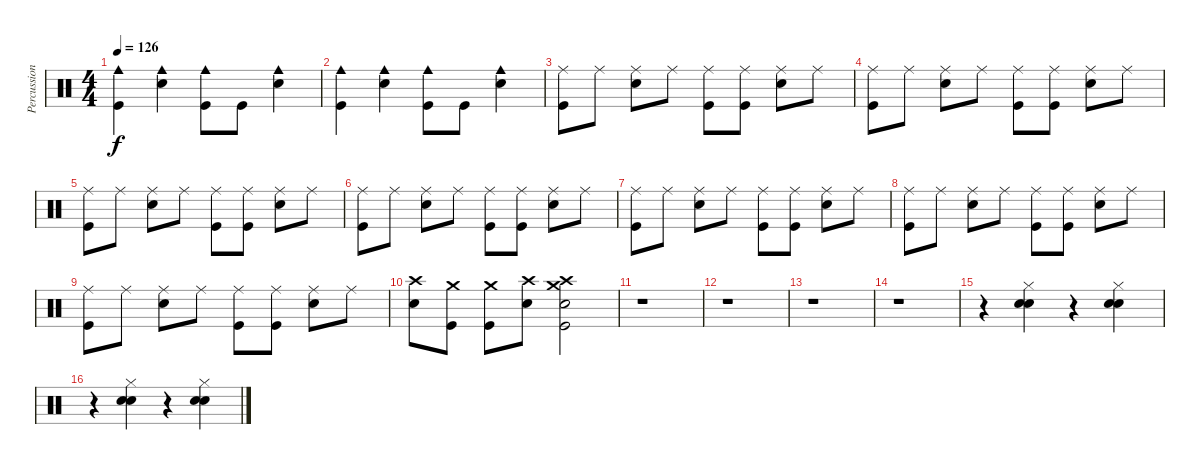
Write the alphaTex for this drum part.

\track ("Percussion" "Percussion") {instrument percussion}
\staff {score}
\articulation defaults
\ts (4 4)
\tempo 126
\clef neutral
\ks c
("Cowbell medium (hit)" "Kick (hit)").4{dy f} ("Cowbell medium (hit)" "Electric Snare (hit)").4 ("Cowbell medium (hit)" "Kick (hit)").8 "Kick (hit)".8 ("Cowbell medium (hit)" "Electric Snare (hit)").4 |
("Cowbell medium (hit)" "Kick (hit)").4 ("Cowbell medium (hit)" "Electric Snare (hit)").4 ("Cowbell medium (hit)" "Kick (hit)").8 "Kick (hit)".8 ("Cowbell medium (hit)" "Electric Snare (hit)").4 |
("Ride (middle)" "Kick (hit)").8 "Ride (middle)".8 ("Ride (middle)" "Electric Snare (hit)").8 "Ride (middle)".8 ("Ride (middle)" "Kick (hit)").8 ("Ride (middle)" "Kick (hit)").8 ("Ride (middle)" "Electric Snare (hit)").8 "Ride (middle)".8 |
("Ride (middle)" "Kick (hit)").8 "Ride (middle)".8 ("Ride (middle)" "Electric Snare (hit)").8 "Ride (middle)".8 ("Ride (middle)" "Kick (hit)").8 ("Ride (middle)" "Kick (hit)").8 ("Ride (middle)" "Electric Snare (hit)").8 "Ride (middle)".8 |
("Ride (middle)" "Kick (hit)").8 "Ride (middle)".8 ("Ride (middle)" "Electric Snare (hit)").8 "Ride (middle)".8 ("Ride (middle)" "Kick (hit)").8 ("Ride (middle)" "Kick (hit)").8 ("Ride (middle)" "Electric Snare (hit)").8 "Ride (middle)".8 |
("Ride (middle)" "Kick (hit)").8 "Ride (middle)".8 ("Ride (middle)" "Electric Snare (hit)").8 "Ride (middle)".8 ("Ride (middle)" "Kick (hit)").8 ("Ride (middle)" "Kick (hit)").8 ("Ride (middle)" "Electric Snare (hit)").8 "Ride (middle)".8 |
("Ride (middle)" "Kick (hit)").8 "Ride (middle)".8 ("Ride (middle)" "Electric Snare (hit)").8 "Ride (middle)".8 ("Ride (middle)" "Kick (hit)").8 ("Ride (middle)" "Kick (hit)").8 ("Ride (middle)" "Electric Snare (hit)").8 "Ride (middle)".8 |
("Ride (middle)" "Kick (hit)").8 "Ride (middle)".8 ("Ride (middle)" "Electric Snare (hit)").8 "Ride (middle)".8 ("Ride (middle)" "Kick (hit)").8 ("Ride (middle)" "Kick (hit)").8 ("Ride (middle)" "Electric Snare (hit)").8 "Ride (middle)".8 |
("Ride (middle)" "Kick (hit)").8 "Ride (middle)".8 ("Ride (middle)" "Electric Snare (hit)").8 "Ride (middle)".8 ("Ride (middle)" "Kick (hit)").8 ("Ride (middle)" "Kick (hit)").8 ("Ride (middle)" "Electric Snare (hit)").8 "Ride (middle)".8 |
("Crash high (hit)" "Electric Snare (hit)").8 ("Crash medium (hit)" "Kick (hit)").8 ("Crash medium (hit)" "Kick (hit)").8 ("Crash high (hit)" "Electric Snare (hit)").8 ("Crash medium (hit)" "Crash high (hit)" "Kick (hit)" "Electric Snare (hit)").2 |
r.1 |
r.1 |
r.1 |
r.1 |
r.4 ("Snare (hit) 2" "Electric Snare (hit)" "Hi-Hat (closed)").4 r.4 ("Snare (hit) 2" "Electric Snare (hit)" "Hi-Hat (closed)").4 |
r.4 ("Snare (hit) 2" "Electric Snare (hit)" "Hi-Hat (closed)").4 r.4 ("Snare (hit) 2" "Electric Snare (hit)" "Hi-Hat (closed)").4
